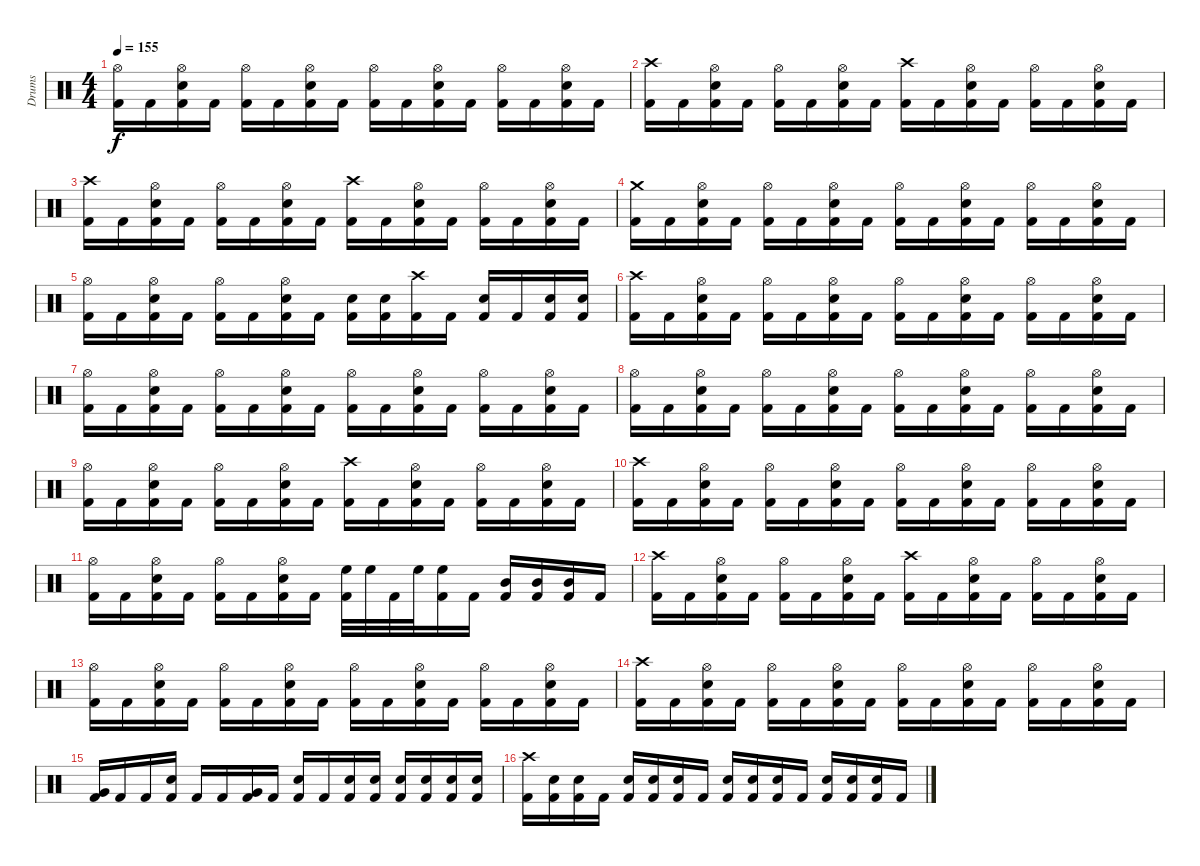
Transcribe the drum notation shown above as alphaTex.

\track ("Drums" "Drums") {instrument percussion}
\staff {score}
\articulation defaults
\ts (4 4)
\tempo 155
\clef neutral
\ks c
("Kick (hit) 2" "Hi-Hat (open)").16{dy f} "Kick (hit) 2".16 ("Kick (hit) 2" "Hi-Hat (open)" "Snare (hit) 2").16 "Kick (hit) 2".16 ("Kick (hit) 2" "Hi-Hat (open)").16 "Kick (hit) 2".16 ("Kick (hit) 2" "Hi-Hat (open)" "Snare (hit) 2").16 "Kick (hit) 2".16 ("Kick (hit) 2" "Hi-Hat (open)").16 "Kick (hit) 2".16 ("Kick (hit) 2" "Hi-Hat (open)" "Snare (hit) 2").16 "Kick (hit) 2".16 ("Kick (hit) 2" "Hi-Hat (open)").16 "Kick (hit) 2".16 ("Kick (hit) 2" "Hi-Hat (open)" "Snare (hit) 2").16 "Kick (hit) 2".16 |
("Kick (hit) 2" "Crash high (hit)").16 "Kick (hit) 2".16 ("Kick (hit) 2" "Hi-Hat (open)" "Snare (hit) 2").16 "Kick (hit) 2".16 ("Kick (hit) 2" "Hi-Hat (open)").16 "Kick (hit) 2".16 ("Kick (hit) 2" "Hi-Hat (open)" "Snare (hit) 2").16 "Kick (hit) 2".16 ("Kick (hit) 2" "Crash high (hit)").16 "Kick (hit) 2".16 ("Kick (hit) 2" "Hi-Hat (open)" "Snare (hit) 2").16 "Kick (hit) 2".16 ("Kick (hit) 2" "Hi-Hat (open)").16 "Kick (hit) 2".16 ("Kick (hit) 2" "Hi-Hat (open)" "Snare (hit) 2").16 "Kick (hit) 2".16 |
("Kick (hit) 2" "Crash high (hit)").16 "Kick (hit) 2".16 ("Kick (hit) 2" "Hi-Hat (open)" "Snare (hit) 2").16 "Kick (hit) 2".16 ("Kick (hit) 2" "Hi-Hat (open)").16 "Kick (hit) 2".16 ("Kick (hit) 2" "Hi-Hat (open)" "Snare (hit) 2").16 "Kick (hit) 2".16 ("Kick (hit) 2" "Crash high (hit)").16 "Kick (hit) 2".16 ("Kick (hit) 2" "Hi-Hat (open)" "Snare (hit) 2").16 "Kick (hit) 2".16 ("Kick (hit) 2" "Hi-Hat (open)").16 "Kick (hit) 2".16 ("Kick (hit) 2" "Hi-Hat (open)" "Snare (hit) 2").16 "Kick (hit) 2".16 |
("Kick (hit) 2" "Crash medium (hit)").16 "Kick (hit) 2".16 ("Kick (hit) 2" "Hi-Hat (open)" "Snare (hit) 2").16 "Kick (hit) 2".16 ("Kick (hit) 2" "Hi-Hat (open)").16 "Kick (hit) 2".16 ("Kick (hit) 2" "Hi-Hat (open)" "Snare (hit) 2").16 "Kick (hit) 2".16 ("Kick (hit) 2" "Hi-Hat (open)").16 "Kick (hit) 2".16 ("Kick (hit) 2" "Hi-Hat (open)" "Snare (hit) 2").16 "Kick (hit) 2".16 ("Kick (hit) 2" "Hi-Hat (open)").16 "Kick (hit) 2".16 ("Kick (hit) 2" "Hi-Hat (open)" "Snare (hit) 2").16 "Kick (hit) 2".16 |
("Kick (hit) 2" "Hi-Hat (open)").16 "Kick (hit) 2".16 ("Kick (hit) 2" "Hi-Hat (open)" "Snare (hit) 2").16 "Kick (hit) 2".16 ("Kick (hit) 2" "Hi-Hat (open)").16 "Kick (hit) 2".16 ("Kick (hit) 2" "Hi-Hat (open)" "Snare (hit) 2").16 "Kick (hit) 2".16 ("Kick (hit) 2" "Snare (hit) 2").16 ("Kick (hit) 2" "Snare (hit) 2").16 ("Kick (hit) 2" "Crash high (hit)").16 "Kick (hit) 2".16 ("Kick (hit) 2" "Snare (hit) 2").16 "Kick (hit) 2".16 ("Kick (hit) 2" "Snare (hit) 2").16 ("Kick (hit) 2" "Snare (hit) 2").16 |
("Kick (hit) 2" "Crash high (hit)").16 "Kick (hit) 2".16 ("Kick (hit) 2" "Hi-Hat (open)" "Snare (hit) 2").16 "Kick (hit) 2".16 ("Kick (hit) 2" "Hi-Hat (open)").16 "Kick (hit) 2".16 ("Kick (hit) 2" "Hi-Hat (open)" "Snare (hit) 2").16 "Kick (hit) 2".16 ("Kick (hit) 2" "Hi-Hat (open)").16 "Kick (hit) 2".16 ("Kick (hit) 2" "Hi-Hat (open)" "Snare (hit) 2").16 "Kick (hit) 2".16 ("Kick (hit) 2" "Hi-Hat (open)").16 "Kick (hit) 2".16 ("Kick (hit) 2" "Hi-Hat (open)" "Snare (hit) 2").16 "Kick (hit) 2".16 |
("Kick (hit) 2" "Hi-Hat (open)").16 "Kick (hit) 2".16 ("Kick (hit) 2" "Hi-Hat (open)" "Snare (hit) 2").16 "Kick (hit) 2".16 ("Kick (hit) 2" "Hi-Hat (open)").16 "Kick (hit) 2".16 ("Kick (hit) 2" "Hi-Hat (open)" "Snare (hit) 2").16 "Kick (hit) 2".16 ("Kick (hit) 2" "Hi-Hat (open)").16 "Kick (hit) 2".16 ("Kick (hit) 2" "Hi-Hat (open)" "Snare (hit) 2").16 "Kick (hit) 2".16 ("Kick (hit) 2" "Hi-Hat (open)").16 "Kick (hit) 2".16 ("Kick (hit) 2" "Hi-Hat (open)" "Snare (hit) 2").16 "Kick (hit) 2".16 |
("Kick (hit) 2" "Hi-Hat (open)").16 "Kick (hit) 2".16 ("Kick (hit) 2" "Hi-Hat (open)" "Snare (hit) 2").16 "Kick (hit) 2".16 ("Kick (hit) 2" "Hi-Hat (open)").16 "Kick (hit) 2".16 ("Kick (hit) 2" "Hi-Hat (open)" "Snare (hit) 2").16 "Kick (hit) 2".16 ("Kick (hit) 2" "Hi-Hat (open)").16 "Kick (hit) 2".16 ("Kick (hit) 2" "Hi-Hat (open)" "Snare (hit) 2").16 "Kick (hit) 2".16 ("Kick (hit) 2" "Hi-Hat (open)").16 "Kick (hit) 2".16 ("Kick (hit) 2" "Hi-Hat (open)" "Snare (hit) 2").16 "Kick (hit) 2".16 |
("Kick (hit) 2" "Hi-Hat (open)").16 "Kick (hit) 2".16 ("Kick (hit) 2" "Hi-Hat (open)" "Snare (hit) 2").16 "Kick (hit) 2".16 ("Kick (hit) 2" "Hi-Hat (open)").16 "Kick (hit) 2".16 ("Kick (hit) 2" "Hi-Hat (open)" "Snare (hit) 2").16 "Kick (hit) 2".16 ("Kick (hit) 2" "Crash high (hit)").16 "Kick (hit) 2".16 ("Kick (hit) 2" "Hi-Hat (open)" "Snare (hit) 2").16 "Kick (hit) 2".16 ("Kick (hit) 2" "Hi-Hat (open)").16 "Kick (hit) 2".16 ("Kick (hit) 2" "Hi-Hat (open)" "Snare (hit) 2").16 "Kick (hit) 2".16 |
("Kick (hit) 2" "Crash high (hit)").16 "Kick (hit) 2".16 ("Kick (hit) 2" "Hi-Hat (open)" "Snare (hit) 2").16 "Kick (hit) 2".16 ("Kick (hit) 2" "Hi-Hat (open)").16 "Kick (hit) 2".16 ("Kick (hit) 2" "Hi-Hat (open)" "Snare (hit) 2").16 "Kick (hit) 2".16 ("Kick (hit) 2" "Hi-Hat (open)").16 "Kick (hit) 2".16 ("Kick (hit) 2" "Hi-Hat (open)" "Snare (hit) 2").16 "Kick (hit) 2".16 ("Kick (hit) 2" "Hi-Hat (open)").16 "Kick (hit) 2".16 ("Kick (hit) 2" "Hi-Hat (open)" "Snare (hit) 2").16 "Kick (hit) 2".16 |
("Kick (hit) 2" "Hi-Hat (open)").16 "Kick (hit) 2".16 ("Kick (hit) 2" "Hi-Hat (open)" "Snare (hit) 2").16 "Kick (hit) 2".16 ("Kick (hit) 2" "Hi-Hat (open)").16 "Kick (hit) 2".16 ("Kick (hit) 2" "Hi-Hat (open)" "Snare (hit) 2").16 "Kick (hit) 2".16 ("Kick (hit) 2" "High Floor Tom (hit)").32 "High Floor Tom (hit)".32 "Kick (hit) 2".32 "High Floor Tom (hit)".32 ("Kick (hit) 2" "High Floor Tom (hit)").16 "Kick (hit) 2".16 ("Kick (hit) 2" "Mid Tom (hit)").16 ("Kick (hit) 2" "Mid Tom (hit)").16 ("Kick (hit) 2" "Mid Tom (hit)").16 "Kick (hit) 2".16 |
("Kick (hit) 2" "Crash high (hit)").16 "Kick (hit) 2".16 ("Kick (hit) 2" "Hi-Hat (open)" "Snare (hit) 2").16 "Kick (hit) 2".16 ("Kick (hit) 2" "Hi-Hat (open)").16 "Kick (hit) 2".16 ("Kick (hit) 2" "Hi-Hat (open)" "Snare (hit) 2").16 "Kick (hit) 2".16 ("Kick (hit) 2" "Crash high (hit)").16 "Kick (hit) 2".16 ("Kick (hit) 2" "Hi-Hat (open)" "Snare (hit) 2").16 "Kick (hit) 2".16 ("Kick (hit) 2" "Hi-Hat (open)").16 "Kick (hit) 2".16 ("Kick (hit) 2" "Hi-Hat (open)" "Snare (hit) 2").16 "Kick (hit) 2".16 |
("Kick (hit) 2" "Hi-Hat (open)").16 "Kick (hit) 2".16 ("Kick (hit) 2" "Hi-Hat (open)" "Snare (hit) 2").16 "Kick (hit) 2".16 ("Kick (hit) 2" "Hi-Hat (open)").16 "Kick (hit) 2".16 ("Kick (hit) 2" "Hi-Hat (open)" "Snare (hit) 2").16 "Kick (hit) 2".16 ("Kick (hit) 2" "Hi-Hat (open)").16 "Kick (hit) 2".16 ("Kick (hit) 2" "Hi-Hat (open)" "Snare (hit) 2").16 "Kick (hit) 2".16 ("Kick (hit) 2" "Hi-Hat (open)").16 "Kick (hit) 2".16 ("Kick (hit) 2" "Hi-Hat (open)" "Snare (hit) 2").16 "Kick (hit) 2".16 |
("Kick (hit) 2" "Crash high (hit)").16 "Kick (hit) 2".16 ("Kick (hit) 2" "Hi-Hat (open)" "Snare (hit) 2").16 "Kick (hit) 2".16 ("Kick (hit) 2" "Hi-Hat (open)").16 "Kick (hit) 2".16 ("Kick (hit) 2" "Hi-Hat (open)" "Snare (hit) 2").16 "Kick (hit) 2".16 ("Kick (hit) 2" "Hi-Hat (open)").16 "Kick (hit) 2".16 ("Kick (hit) 2" "Hi-Hat (open)" "Snare (hit) 2").16 "Kick (hit) 2".16 ("Kick (hit) 2" "Hi-Hat (open)").16 "Kick (hit) 2".16 ("Kick (hit) 2" "Hi-Hat (open)" "Snare (hit) 2").16 "Kick (hit) 2".16 |
("Kick (hit) 2" "Very Low Tom (hit)").16 "Kick (hit) 2".16 "Kick (hit) 2".16 ("Kick (hit) 2" "Snare (hit) 2").16 "Kick (hit) 2".16 "Kick (hit) 2".16 ("Kick (hit) 2" "Very Low Tom (hit)").16 "Kick (hit) 2".16 ("Kick (hit) 2" "Snare (hit) 2").16 "Kick (hit) 2".16 ("Kick (hit) 2" "Snare (hit) 2").16 ("Kick (hit) 2" "Snare (hit) 2").16 ("Kick (hit) 2" "Snare (hit) 2").16 ("Kick (hit) 2" "Snare (hit) 2").16 ("Kick (hit) 2" "Snare (hit) 2").16 ("Kick (hit) 2" "Snare (hit) 2").16 |
("Kick (hit) 2" "Crash high (hit)").16 ("Kick (hit) 2" "Snare (hit) 2").16 ("Kick (hit) 2" "Snare (hit) 2").16 "Kick (hit) 2".16 ("Kick (hit) 2" "Snare (hit) 2").16 ("Kick (hit) 2" "Snare (hit) 2").16 ("Kick (hit) 2" "Snare (hit) 2").16 "Kick (hit) 2".16 ("Kick (hit) 2" "Snare (hit) 2").16 ("Kick (hit) 2" "Snare (hit) 2").16 ("Kick (hit) 2" "Snare (hit) 2").16 "Kick (hit) 2".16 ("Kick (hit) 2" "Snare (hit) 2").16 ("Kick (hit) 2" "Snare (hit) 2").16 ("Kick (hit) 2" "Snare (hit) 2").16 "Kick (hit) 2".16
